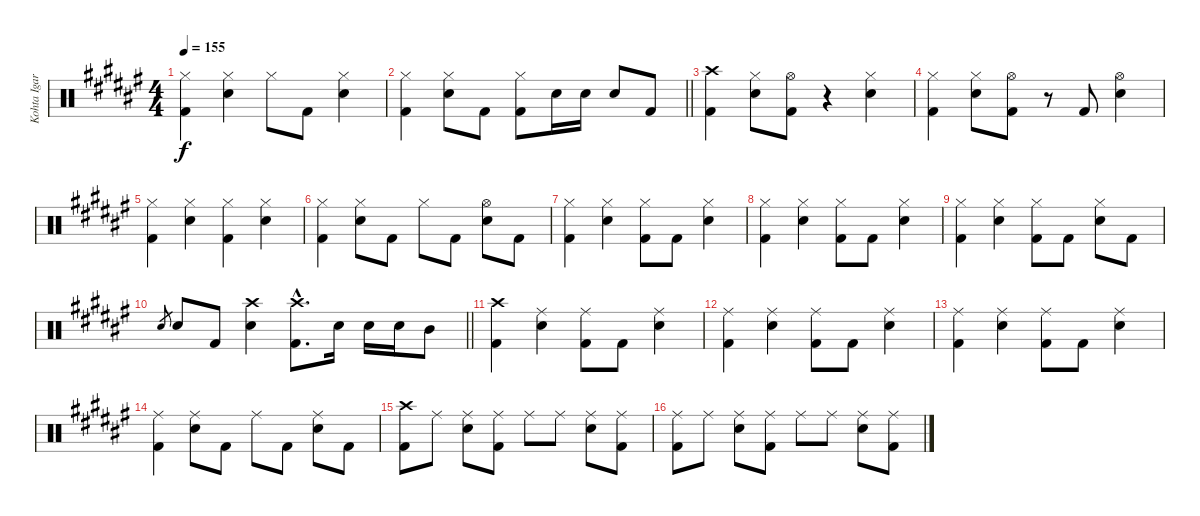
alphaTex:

\track ("Kohta Igarashi" "Kohta Igar") {instrument percussion}
\staff {score}
\articulation defaults
\ts (4 4)
\tempo 155
\clef neutral
\ks f#
("Hi-Hat (closed)" "Kick (hit) 2").4{dy f} ("Hi-Hat (closed)" "Electric Snare (hit)").4 "Hi-Hat (closed)".8 "Kick (hit) 2".8 ("Hi-Hat (closed)" "Electric Snare (hit)").4 |
\barLineRight lightlight
("Hi-Hat (closed)" "Kick (hit) 2").4 ("Hi-Hat (closed)" "Electric Snare (hit)").8 "Kick (hit) 2".8 ("Hi-Hat (closed)" "Kick (hit) 2").8 "Electric Snare (hit)".16 "Electric Snare (hit)".16 "Electric Snare (hit)".8 "Kick (hit) 2".8 |
("Crash high (hit)" "Kick (hit) 2").4 ("Hi-Hat (closed)" "Electric Snare (hit)").8 ("Hi-Hat (open)" "Kick (hit) 2").8 r.4 ("Hi-Hat (closed)" "Electric Snare (hit)").4 |
("Hi-Hat (closed)" "Kick (hit) 2").4 ("Hi-Hat (closed)" "Electric Snare (hit)").8 ("Hi-Hat (open)" "Kick (hit) 2").8 r.8 "Kick (hit) 2".8 ("Hi-Hat (open)" "Electric Snare (hit)").4 |
("Hi-Hat (closed)" "Kick (hit) 2").4 ("Hi-Hat (closed)" "Electric Snare (hit)").4 ("Hi-Hat (closed)" "Kick (hit) 2").4 ("Hi-Hat (closed)" "Electric Snare (hit)").4 |
("Hi-Hat (closed)" "Kick (hit) 2").4 ("Hi-Hat (closed)" "Electric Snare (hit)").8 "Kick (hit) 2".8 "Hi-Hat (closed)".8 "Kick (hit) 2".8 ("Hi-Hat (open)" "Electric Snare (hit)").8 "Kick (hit) 2".8 |
("Hi-Hat (closed)" "Kick (hit) 2").4 ("Hi-Hat (closed)" "Electric Snare (hit)").4 ("Hi-Hat (closed)" "Kick (hit) 2").8 "Kick (hit) 2".8 ("Hi-Hat (closed)" "Electric Snare (hit)").4 |
("Hi-Hat (closed)" "Kick (hit) 2").4 ("Hi-Hat (closed)" "Electric Snare (hit)").4 ("Hi-Hat (closed)" "Kick (hit) 2").8 "Kick (hit) 2".8 ("Hi-Hat (closed)" "Electric Snare (hit)").4 |
("Hi-Hat (closed)" "Kick (hit) 2").4 ("Hi-Hat (closed)" "Electric Snare (hit)").4 ("Hi-Hat (closed)" "Kick (hit) 2").8 "Kick (hit) 2".8 ("Hi-Hat (closed)" "Electric Snare (hit)").8 "Kick (hit) 2".8 |
\barLineRight lightlight "Electric Snare (hit)".8{gr} "Electric Snare (hit)".8 "Kick (hit) 2".8
("Crash high (hit)" "Electric Snare (hit)").4 ("Crash high (hit)"{hac} "Kick (hit) 2"{hac}).8{d} "Electric Snare (hit)".16 "Electric Snare (hit)".16 "Electric Snare (hit)".16 "Mid Tom (hit)".8 |
("Crash high (hit)" "Kick (hit) 2").4 ("Ride (middle)" "Electric Snare (hit)").4 ("Ride (middle)" "Kick (hit) 2").8 "Kick (hit) 2".8 ("Ride (middle)" "Electric Snare (hit)").4 |
("Ride (middle)" "Kick (hit) 2").4 ("Ride (middle)" "Electric Snare (hit)").4 ("Ride (middle)" "Kick (hit) 2").8 "Kick (hit) 2".8 ("Ride (middle)" "Electric Snare (hit)").4 |
("Ride (middle)" "Kick (hit) 2").4 ("Ride (middle)" "Electric Snare (hit)").4 ("Ride (middle)" "Kick (hit) 2").8 "Kick (hit) 2".8 ("Ride (middle)" "Electric Snare (hit)").4 |
("Ride (middle)" "Kick (hit) 2").4 ("Ride (middle)" "Electric Snare (hit)").8 "Kick (hit) 2".8 "Ride (middle)".8 "Kick (hit) 2".8 ("Ride (middle)" "Electric Snare (hit)").8 "Kick (hit) 2".8 |
("Crash high (hit)" "Kick (hit) 2").8 "Ride (middle)".8 ("Ride (middle)" "Electric Snare (hit)").8 ("Ride (middle)" "Kick (hit) 2").8 "Ride (middle)".8 "Ride (middle)".8 ("Ride (middle)" "Electric Snare (hit)").8 ("Ride (middle)" "Kick (hit) 2").8 |
("Ride (middle)" "Kick (hit) 2").8 "Ride (middle)".8 ("Ride (middle)" "Electric Snare (hit)").8 ("Ride (middle)" "Kick (hit) 2").8 "Ride (middle)".8 "Ride (middle)".8 ("Ride (middle)" "Electric Snare (hit)").8 ("Ride (middle)" "Kick (hit) 2").8
